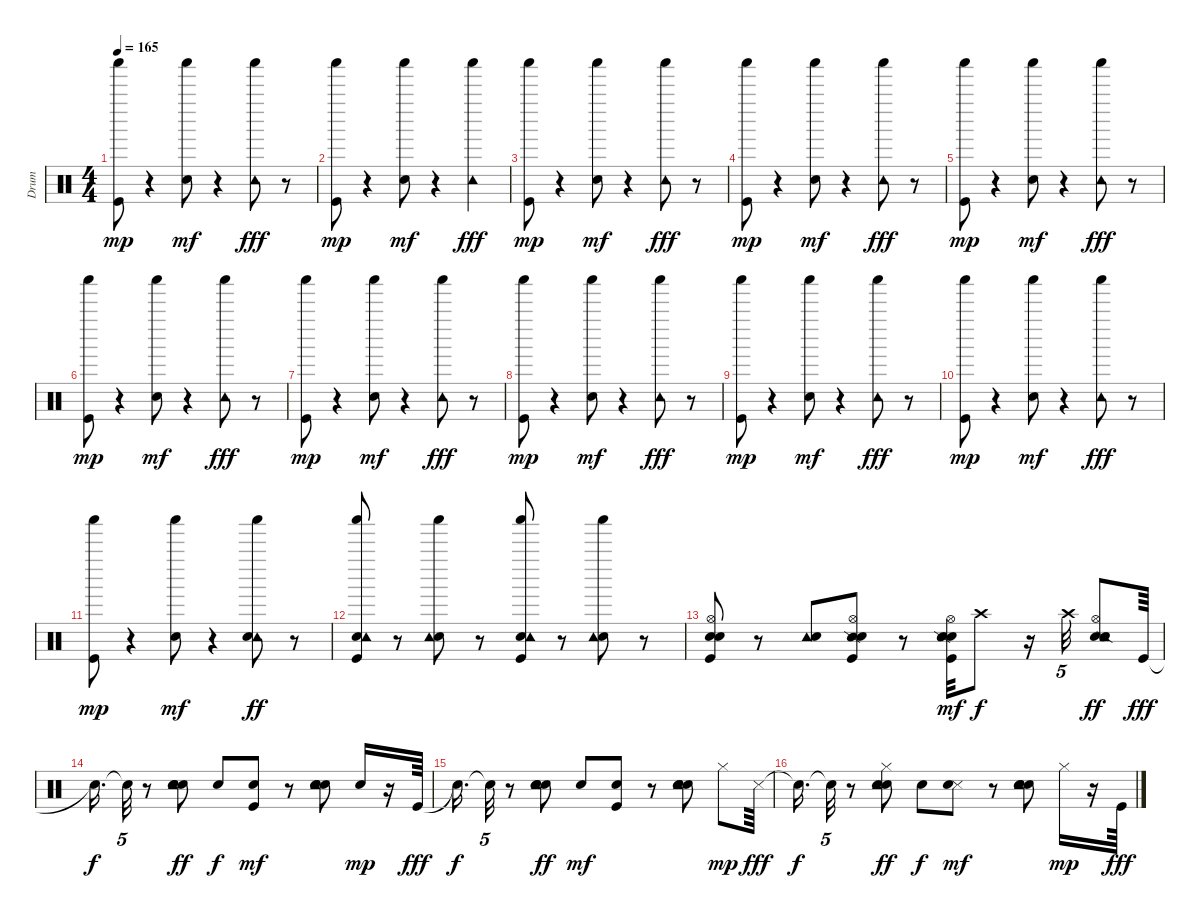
\track ("Drum" "Drum") {instrument percussion}
\staff {score}
\articulation defaults
\ts (4 4)
\tempo 165
\clef neutral
\ks c
("Kick (hit)" "Shaker (hit)").8{dy mp} r.4 ("Electric Snare (hit)" "Shaker (hit)").8{dy mf} r.4 ("Shaker (hit)" "Tambourine (hit)").8{dy fff} r.8 |
("Kick (hit)" "Shaker (hit)").8{dy mp} r.4 ("Electric Snare (hit)" "Shaker (hit)").8{dy mf} r.4 ("Shaker (hit)" "Tambourine (hit)").4{dy fff} |
("Kick (hit)" "Shaker (hit)").8{dy mp} r.4 ("Electric Snare (hit)" "Shaker (hit)").8{dy mf} r.4 ("Shaker (hit)" "Tambourine (hit)").8{dy fff} r.8 |
("Kick (hit)" "Shaker (hit)").8{dy mp} r.4 ("Electric Snare (hit)" "Shaker (hit)").8{dy mf} r.4 ("Shaker (hit)" "Tambourine (hit)").8{dy fff} r.8 |
("Kick (hit)" "Shaker (hit)").8{dy mp} r.4 ("Electric Snare (hit)" "Shaker (hit)").8{dy mf} r.4 ("Shaker (hit)" "Tambourine (hit)").8{dy fff} r.8 |
("Kick (hit)" "Shaker (hit)").8{dy mp} r.4 ("Electric Snare (hit)" "Shaker (hit)").8{dy mf} r.4 ("Shaker (hit)" "Tambourine (hit)").8{dy fff} r.8 |
("Kick (hit)" "Shaker (hit)").8{dy mp} r.4 ("Electric Snare (hit)" "Shaker (hit)").8{dy mf} r.4 ("Shaker (hit)" "Tambourine (hit)").8{dy fff} r.8 |
("Kick (hit)" "Shaker (hit)").8{dy mp} r.4 ("Electric Snare (hit)" "Shaker (hit)").8{dy mf} r.4 ("Shaker (hit)" "Tambourine (hit)").8{dy fff} r.8 |
("Kick (hit)" "Shaker (hit)").8{dy mp} r.4 ("Electric Snare (hit)" "Shaker (hit)").8{dy mf} r.4 ("Shaker (hit)" "Tambourine (hit)").8{dy fff} r.8 |
("Kick (hit)" "Shaker (hit)").8{dy mp} r.4 ("Electric Snare (hit)" "Shaker (hit)").8{dy mf} r.4 ("Shaker (hit)" "Tambourine (hit)").8{dy fff} r.8 |
("Kick (hit)" "Shaker (hit)").8{dy mp} r.4 ("Electric Snare (hit)" "Shaker (hit)").8{dy mf} r.4 ("Shaker (hit)" "Tambourine (hit)" "Electric Snare (hit)").8{dy ff} r.8 |
("Kick (hit)" "Shaker (hit)" "Electric Snare (hit)" "Tambourine (hit)").8 r.8 ("Electric Snare (hit)" "Shaker (hit)" "Tambourine (hit)").8 r.8 ("Electric Snare (hit)" "Shaker (hit)" "Tambourine (hit)" "Kick (hit)").8 r.8 ("Shaker (hit)" "Electric Snare (hit)" "Tambourine (hit)").8 r.8 |
("Hi-Hat (open)" "Electric Snare (hit)" "Hand Clap (hit)" "Kick (hit)").8 r.8 ("Tambourine (hit)" "Hand Clap (hit)").8 ("Snare (side stick) 2" "Kick (hit)" "Electric Snare (hit)" "Hi-Hat (open)").8 r.8 ("Kick (hit)" "Hand Clap (hit)" "Electric Snare (hit)" "Hi-Hat (open)" "Snare (side stick) 2").32{dy mf} "Crash high (hit)".8{dy f} r.16 "Crash high (hit)".32{tu (5 4)} ("Hand Clap (hit)" "Tambourine (hit)" "Electric Snare (hit)" "Hi-Hat (open)" "Snare (side stick) 2").8{dy ff} "Kick (hit)".64{dy fff} |
"Snare (hit)"{t}.16{d dy f} "Snare (hit)"{t}.32{tu (5 4)} r.8 ("Hand Clap (hit)" "Metronome (bell)" "Tambourine (hit)" "Electric Snare (hit)").8{dy ff} "Hand Clap (hit)".8{dy f} ("Kick (hit)" "Snare (hit) 2").8{dy mf} r.8 ("Hand Clap (hit)" "Tambourine (hit)" "Electric Snare (hit)" "Snare (hit) 2").8 "Metronome (bell)".16{dy mp} r.16 "Kick (hit)".64{dy fff} |
"Snare (hit)"{t}.16{d dy f} "Snare (hit)"{t}.32{tu (5 4)} r.8 ("Hand Clap (hit)" "Metronome (bell)" "Tambourine (hit)" "Electric Snare (hit)").8{dy ff} "Hand Clap (hit)".8{dy mf} ("Kick (hit)" "Snare (hit) 2").8 r.8 ("Hand Clap (hit)" "Tambourine (hit)" "Electric Snare (hit)" "Snare (hit) 2").8 "Hi-Hat (closed)".8{dy mp} "Metronome (hit)".64{dy fff} |
"Snare (hit)"{t}.16{d dy f} "Snare (hit)"{t}.32{tu (5 4)} r.8 ("Hand Clap (hit)" "Hi-Hat (closed)" "Tambourine (hit)" "Electric Snare (hit)").8{dy ff} "Hand Clap (hit)".8{dy f} ("Metronome (hit)" "Snare (hit) 2").8{dy mf} r.8 ("Hand Clap (hit)" "Tambourine (hit)" "Electric Snare (hit)" "Snare (hit) 2").8 "Hi-Hat (closed)".16{dy mp} r.16 "Kick (hit)".64{dy fff}
